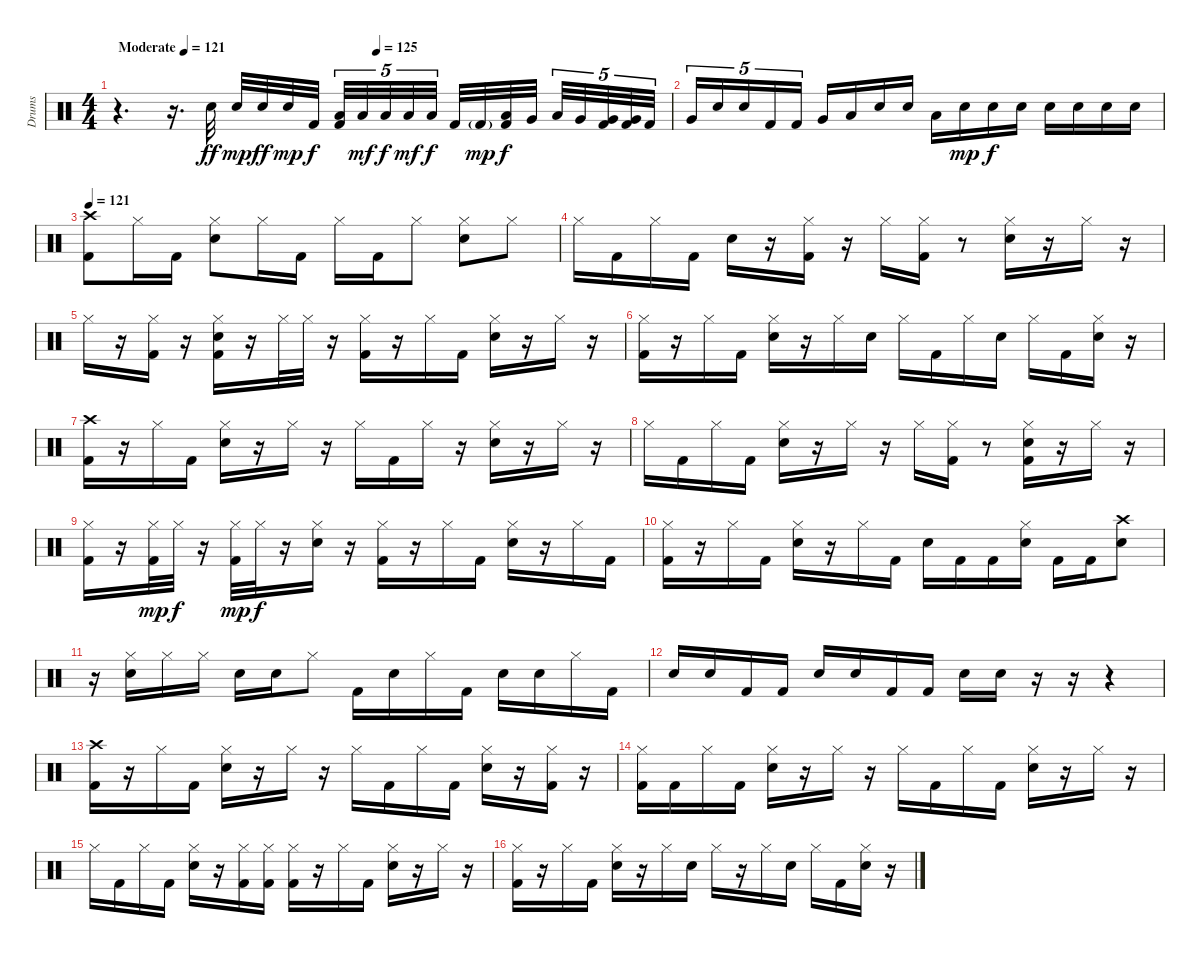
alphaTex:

\track ("Drums" "Drums") {instrument percussion}
\staff {score}
\articulation defaults
\ts (4 4)
\tempo (121 "Moderate")
\tempo (125 0.46875)
\tempo (121 "Moderate")
\clef neutral
\ks c
r.4{d dy ff} r.16{d} "Snare (hit) 2".32 "Snare (hit) 2".32{dy mp} "Snare (hit) 2".32{dy ff} "Snare (hit) 2".32{dy mp} "Kick (hit) 2".32{dy f beam splitsecondary} ("Low Tom (hit)" "Kick (hit) 2").32{tu (5 4)} "Low Tom (hit)".32{tu (5 4) dy mf} "Low Tom (hit)".32{tu (5 4) dy f} "Low Tom (hit)".32{tu (5 4) dy mf} "Low Tom (hit)".32{tu (5 4) dy f} "Kick (hit) 2".32 "Kick (hit) 2"{g}.32{dy mp} ("Low Floor Tom (hit)" "Kick (hit) 2").32{dy f} "Very Low Tom (hit)".32{beam splitsecondary} "Low Floor Tom (hit)".32{tu (5 4)} "Very Low Tom (hit)".32{tu (5 4)} ("Very Low Tom (hit)" "Kick (hit) 2").32{tu (5 4)} ("Very Low Tom (hit)" "Kick (hit) 2").32{tu (5 4)} "Kick (hit) 2".32{tu (5 4)} |
"Very Low Tom (hit)".16{tu (5 4)} "Snare (hit) 2".16{tu (5 4)} "Snare (hit) 2".16{tu (5 4)} "Kick (hit) 2".16{tu (5 4)} "Kick (hit) 2".16{tu (5 4)} "Very Low Tom (hit)".16 "Low Tom (hit)".16 "Snare (hit) 2".16 "Snare (hit) 2".16 "Low Tom (hit)".16 "Snare (hit) 2".16{dy mp} "Snare (hit) 2".16{dy f} "Snare (hit) 2".16 "Snare (hit) 2".16 "Snare (hit) 2".16 "Snare (hit) 2".16 "Snare (hit) 2".16 |
\tempo 121
("Crash high (hit)" "Kick (hit) 2").8 "Hi-Hat (closed)".16 "Kick (hit) 2".16 ("Hi-Hat (closed)" "Snare (hit) 2").8 "Hi-Hat (closed)".16 "Kick (hit) 2".16 "Hi-Hat (closed)".16 "Kick (hit) 2".16 "Hi-Hat (closed)".8 ("Hi-Hat (closed)" "Snare (hit) 2").8 "Hi-Hat (closed)".8 |
"Hi-Hat (closed)".16 "Kick (hit) 2".16 "Hi-Hat (closed)".16 "Kick (hit) 2".16 "Snare (hit) 2".16 r.16 ("Hi-Hat (closed)" "Kick (hit) 2").16 r.16 "Hi-Hat (closed)".16 ("Hi-Hat (closed)" "Kick (hit) 2").16 r.8 ("Hi-Hat (closed)" "Snare (hit) 2").16 r.16 "Hi-Hat (closed)".16 r.16 |
"Hi-Hat (closed)".16 r.16 ("Hi-Hat (closed)" "Kick (hit) 2").16 r.16 ("Hi-Hat (closed)" "Snare (hit) 2" "Kick (hit) 2").16 r.16 "Hi-Hat (closed)".32 "Hi-Hat (closed)".32 r.16 ("Hi-Hat (closed)" "Kick (hit) 2").16 r.16 "Hi-Hat (closed)".16 "Kick (hit) 2".16 ("Hi-Hat (closed)" "Snare (hit) 2").16 r.16 "Hi-Hat (closed)".16 r.16 |
("Hi-Hat (closed)" "Kick (hit) 2").16 r.16 "Hi-Hat (closed)".16 "Kick (hit) 2".16 ("Hi-Hat (closed)" "Snare (hit) 2").16 r.16 "Hi-Hat (closed)".16 "Snare (hit) 2".16 "Hi-Hat (closed)".16 "Kick (hit) 2".16 "Hi-Hat (closed)".16 "Snare (hit) 2".16 "Hi-Hat (closed)".16 "Kick (hit) 2".16 ("Hi-Hat (closed)" "Snare (hit) 2").16 r.16 |
("Crash high (hit)" "Kick (hit) 2").16 r.16 "Hi-Hat (closed)".16 "Kick (hit) 2".16 ("Hi-Hat (closed)" "Snare (hit) 2").16 r.16 "Hi-Hat (closed)".16 r.16 "Hi-Hat (closed)".16 "Kick (hit) 2".16 "Hi-Hat (closed)".16 r.16 ("Hi-Hat (closed)" "Snare (hit) 2").16 r.16 "Hi-Hat (closed)".16 r.16 |
"Hi-Hat (closed)".16 "Kick (hit) 2".16 "Hi-Hat (closed)".16 "Kick (hit) 2".16 ("Hi-Hat (closed)" "Snare (hit) 2").16 r.16 "Hi-Hat (closed)".16 r.16 "Hi-Hat (closed)".16 ("Hi-Hat (closed)" "Kick (hit) 2").16 r.8 ("Hi-Hat (closed)" "Snare (hit) 2" "Kick (hit) 2").16 r.16 "Hi-Hat (closed)".16 r.16 |
("Hi-Hat (closed)" "Kick (hit) 2").16 r.16 ("Hi-Hat (closed)" "Kick (hit) 2").32{dy mp} "Hi-Hat (closed)".32{dy f} r.16 ("Hi-Hat (closed)" "Kick (hit) 2").32{dy mp} "Hi-Hat (closed)".32{dy f} r.16 ("Hi-Hat (closed)" "Snare (hit) 2").16 r.16 ("Hi-Hat (closed)" "Kick (hit) 2").16 r.16 "Hi-Hat (closed)".16 "Kick (hit) 2".16 ("Hi-Hat (closed)" "Snare (hit) 2").16 r.16 "Hi-Hat (closed)".16 "Kick (hit) 2".16 |
("Hi-Hat (closed)" "Kick (hit) 2").16 r.16 "Hi-Hat (closed)".16 "Kick (hit) 2".16 ("Hi-Hat (closed)" "Snare (hit) 2").16 r.16 "Hi-Hat (closed)".16 "Kick (hit) 2".16 "Snare (hit) 2".16 "Kick (hit) 2".16 "Kick (hit) 2".16 ("Hi-Hat (closed)" "Snare (hit) 2").16 "Kick (hit) 2".16 "Kick (hit) 2".16 ("Crash high (hit)" "Snare (hit) 2").8 |
r.16 ("Hi-Hat (closed)" "Snare (hit) 2").16 "Hi-Hat (closed)".16 "Hi-Hat (closed)".16 "Snare (hit) 2".16 "Snare (hit) 2".16 "Hi-Hat (closed)".8 "Kick (hit) 2".16 "Snare (hit) 2".16 "Hi-Hat (closed)".16 "Kick (hit) 2".16 "Snare (hit) 2".16 "Snare (hit) 2".16 "Hi-Hat (closed)".16 "Kick (hit) 2".16 |
"Snare (hit) 2".16 "Snare (hit) 2".16 "Kick (hit) 2".16 "Kick (hit) 2".16 "Snare (hit) 2".16 "Snare (hit) 2".16 "Kick (hit) 2".16 "Kick (hit) 2".16 "Snare (hit) 2".16 "Snare (hit) 2".16 r.16 r.16 r.4 |
("Crash high (hit)" "Kick (hit) 2").16 r.16 "Hi-Hat (closed)".16 "Kick (hit) 2".16 ("Hi-Hat (closed)" "Snare (hit) 2").16 r.16 "Hi-Hat (closed)".16 r.16 "Hi-Hat (closed)".16 "Kick (hit) 2".16 "Hi-Hat (closed)".16 "Kick (hit) 2".16 ("Hi-Hat (closed)" "Snare (hit) 2").16 r.16 ("Hi-Hat (closed)" "Kick (hit) 2").16 r.16 |
("Hi-Hat (closed)" "Kick (hit) 2").16 "Kick (hit) 2".16 "Hi-Hat (closed)".16 "Kick (hit) 2".16 ("Hi-Hat (closed)" "Snare (hit) 2").16 r.16 "Hi-Hat (closed)".16 r.16 "Hi-Hat (closed)".16 "Kick (hit) 2".16 "Hi-Hat (closed)".16 "Kick (hit) 2".16 ("Hi-Hat (closed)" "Snare (hit) 2").16 r.16 "Hi-Hat (closed)".16 r.16 |
"Hi-Hat (closed)".16 "Kick (hit) 2".16 "Hi-Hat (closed)".16 "Kick (hit) 2".16 ("Hi-Hat (closed)" "Snare (hit) 2").16 r.16 ("Hi-Hat (closed)" "Kick (hit) 2").16 ("Hi-Hat (closed)" "Kick (hit) 2").16 ("Hi-Hat (closed)" "Kick (hit) 2").16 r.16 "Hi-Hat (closed)".16 "Kick (hit) 2".16 ("Hi-Hat (closed)" "Snare (hit) 2").16 r.16 "Hi-Hat (closed)".16 r.16 |
("Hi-Hat (closed)" "Kick (hit) 2").16 r.16 "Hi-Hat (closed)".16 "Kick (hit) 2".16 ("Hi-Hat (closed)" "Snare (hit) 2").16 r.16 "Hi-Hat (closed)".16 "Snare (hit) 2".16 "Hi-Hat (closed)".16 r.16 "Hi-Hat (closed)".16 "Snare (hit) 2".16 "Hi-Hat (closed)".16 "Kick (hit) 2".16 ("Hi-Hat (closed)" "Snare (hit) 2").16 r.16
